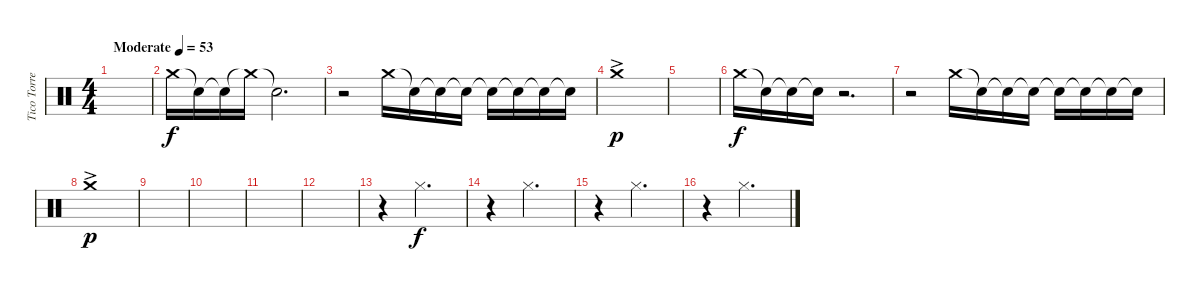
\track ("Tico Torres (Drums)" "Tico Torre") {instrument percussion}
\staff {score}
\articulation defaults
\ts (4 4)
\tempo (53 "Moderate")
\clef neutral
\ks c
|
"Crash medium (hit)".16 "Snare (hit)"{t}.16{volume 6} "Snare (hit)"{t}.16{volume 12} "Crash medium (hit)"{t}.16{volume 16} "Snare (hit)"{t}.2{d} |
r.2{volume 2} "Crash medium (hit)".16 "Snare (hit)"{t}.16 "Snare (hit)"{t}.16{volume 5} "Snare (hit)"{t}.16 "Snare (hit)"{t}.16{volume 9} "Snare (hit)"{t}.16 "Snare (hit)"{t}.16{volume 13} "Snare (hit)"{t}.16 |
"Crash medium (hit)"{ac}.1{dy p volume 16} |
|
"Crash medium (hit)".16{dy f} "Snare (hit)"{t}.16{volume 6} "Snare (hit)"{t}.16{volume 12} "Snare (hit)"{t}.16{volume 16} r.2{d} |
r.2{volume 2} "Crash medium (hit)".16 "Snare (hit)"{t}.16 "Snare (hit)"{t}.16{volume 5} "Snare (hit)"{t}.16 "Snare (hit)"{t}.16{volume 9} "Snare (hit)"{t}.16 "Snare (hit)"{t}.16{volume 13} "Snare (hit)"{t}.16 |
"Crash medium (hit)"{ac}.1{dy p volume 16} |
|
|
|
|
r.4 "Hi-Hat (closed)".2{d dy f} |
r.4 "Hi-Hat (closed)".2{d} |
r.4 "Hi-Hat (closed)".2{d} |
r.4 "Hi-Hat (closed)".2{d}
